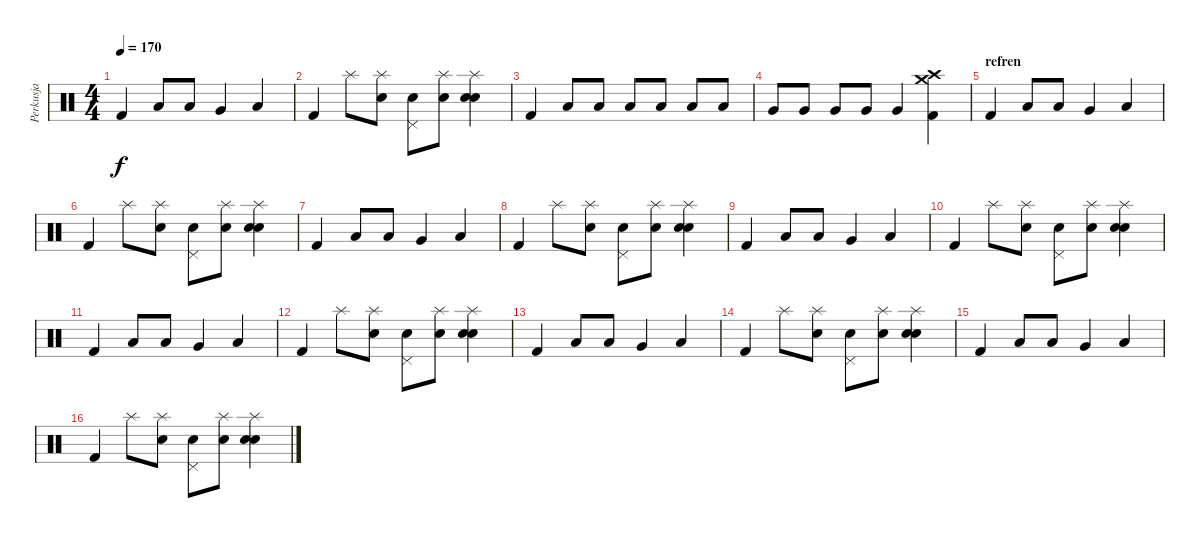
\track ("Perkusja" "Perkusja") {instrument percussion}
\staff {score}
\articulation defaults
\ts (4 4)
\tempo 170
\clef neutral
\ks c "Kick (hit) 2".4{dy f} "Low Tom (hit)".8 "Low Tom (hit)".8 "Very Low Tom (hit)".4 "Low Tom (hit)".4
|
"Kick (hit) 2".4 "Splash (hit)".8 ("Splash (hit)" "Electric Snare (hit)").8 ("Pedal Hi-Hat (hit)" "Electric Snare (hit)").8 ("Splash (hit)" "Electric Snare (hit)").8 ("Splash (hit)" "Electric Snare (hit)" "Snare (hit) 2").4 |
"Kick (hit) 2".4 "Low Tom (hit)".8 "Low Tom (hit)".8 "Low Tom (hit)".8 "Low Tom (hit)".8 "Low Tom (hit)".8 "Low Tom (hit)".8 |
"Very Low Tom (hit)".8 "Very Low Tom (hit)".8 "Very Low Tom (hit)".8 "Very Low Tom (hit)".8 "Very Low Tom (hit)".4 ("Crash high (hit)" "Crash medium (hit)" "Kick (hit) 2").4 |
\section ("" "refren")
"Kick (hit) 2".4 "Low Tom (hit)".8 "Low Tom (hit)".8 "Very Low Tom (hit)".4 "Low Tom (hit)".4 |
"Kick (hit) 2".4 "Splash (hit)".8 ("Splash (hit)" "Electric Snare (hit)").8 ("Pedal Hi-Hat (hit)" "Electric Snare (hit)").8 ("Splash (hit)" "Electric Snare (hit)").8 ("Splash (hit)" "Electric Snare (hit)" "Snare (hit) 2").4 |
"Kick (hit) 2".4 "Low Tom (hit)".8 "Low Tom (hit)".8 "Very Low Tom (hit)".4 "Low Tom (hit)".4 |
"Kick (hit) 2".4 "Splash (hit)".8 ("Splash (hit)" "Electric Snare (hit)").8 ("Pedal Hi-Hat (hit)" "Electric Snare (hit)").8 ("Splash (hit)" "Electric Snare (hit)").8 ("Splash (hit)" "Electric Snare (hit)" "Snare (hit) 2").4 |
"Kick (hit) 2".4 "Low Tom (hit)".8 "Low Tom (hit)".8 "Very Low Tom (hit)".4 "Low Tom (hit)".4 |
"Kick (hit) 2".4 "Splash (hit)".8 ("Splash (hit)" "Electric Snare (hit)").8 ("Pedal Hi-Hat (hit)" "Electric Snare (hit)").8 ("Splash (hit)" "Electric Snare (hit)").8 ("Splash (hit)" "Electric Snare (hit)" "Snare (hit) 2").4 |
"Kick (hit) 2".4 "Low Tom (hit)".8 "Low Tom (hit)".8 "Very Low Tom (hit)".4 "Low Tom (hit)".4 |
"Kick (hit) 2".4 "Splash (hit)".8 ("Splash (hit)" "Electric Snare (hit)").8 ("Pedal Hi-Hat (hit)" "Electric Snare (hit)").8 ("Splash (hit)" "Electric Snare (hit)").8 ("Splash (hit)" "Electric Snare (hit)" "Snare (hit) 2").4 |
"Kick (hit) 2".4 "Low Tom (hit)".8 "Low Tom (hit)".8 "Very Low Tom (hit)".4 "Low Tom (hit)".4 |
"Kick (hit) 2".4 "Splash (hit)".8 ("Splash (hit)" "Electric Snare (hit)").8 ("Pedal Hi-Hat (hit)" "Electric Snare (hit)").8 ("Splash (hit)" "Electric Snare (hit)").8 ("Splash (hit)" "Electric Snare (hit)" "Snare (hit) 2").4 |
"Kick (hit) 2".4 "Low Tom (hit)".8 "Low Tom (hit)".8 "Very Low Tom (hit)".4 "Low Tom (hit)".4 |
"Kick (hit) 2".4 "Splash (hit)".8 ("Splash (hit)" "Electric Snare (hit)").8 ("Pedal Hi-Hat (hit)" "Electric Snare (hit)").8 ("Splash (hit)" "Electric Snare (hit)").8 ("Splash (hit)" "Electric Snare (hit)" "Snare (hit) 2").4
